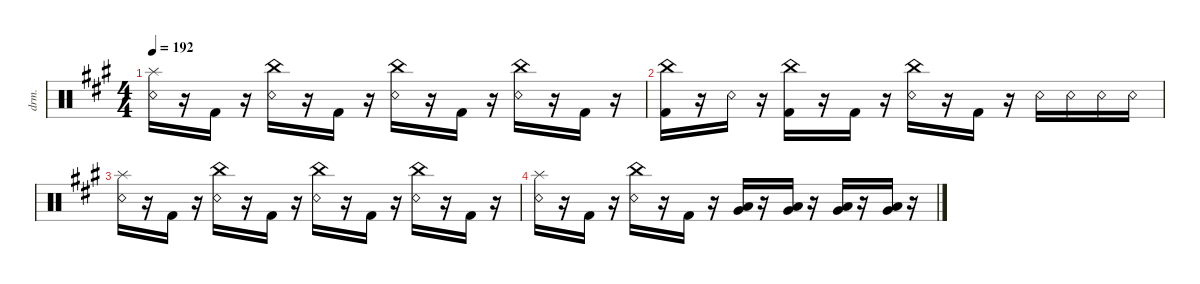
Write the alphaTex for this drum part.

\defaultSystemsLayout 4
\hideDynamics
\bracketExtendMode nobrackets
\otherSystemsTrackNameOrientation horizontal
\track ("Drumkit" "drm.") {instrument percussion}
\staff {score}
\articulation defaults
\ts (4 4)
\tempo 192
\clef neutral
\ks a
("Snare (rim shot)"{acc forcenatural} "Splash (hit)"{acc forcenatural}).16{dy ff beam Down} r.16{beam Down} "Kick (hit) 2"{acc forcenatural}.16{beam Down} r.16{beam Down} ("Snare (rim shot)"{acc forcenatural} "China (hit)"{acc forcenatural}).16{beam Down} r.16{beam Down} "Kick (hit) 2"{acc forcenatural}.16{beam Down} r.16{beam Down} ("Snare (rim shot)"{acc forcenatural} "China (hit)"{acc forcenatural}).16{beam Down} r.16{beam Down} "Kick (hit) 2"{acc forcenatural}.16{beam Down} r.16{beam Down} ("Snare (rim shot)"{acc forcenatural} "China (hit)"{acc forcenatural}).16{beam Down} r.16{beam Down} "Kick (hit) 2"{acc forcenatural}.16{beam Down} r.16{beam Down} |
("Kick (hit) 2"{acc forcenatural} "China (hit)"{acc forcenatural}).16{beam Down} r.16{beam Down} "Snare (rim shot)"{acc forcenatural}.16{beam Down} r.16{beam Down} ("Kick (hit) 2"{acc forcenatural} "China (hit)"{acc forcenatural}).16{beam Down} r.16{beam Down} "Kick (hit) 2"{acc forcenatural}.16{beam Down} r.16{beam Down} ("Snare (rim shot)"{acc forcenatural} "China (hit)"{acc forcenatural}).16{beam Down} r.16{beam Down} "Kick (hit) 2"{acc forcenatural}.16{beam Down} r.16{beam Down} "Snare (rim shot)"{acc forcenatural}.16{beam Down} "Snare (rim shot)"{acc forcenatural}.16{beam Down} "Snare (rim shot)"{acc forcenatural}.16{beam Down} "Snare (rim shot)"{acc forcenatural}.16{beam Down} |
("Snare (rim shot)"{acc forcenatural} "Splash (hit)"{acc forcenatural}).16{beam Down} r.16{beam Down} "Kick (hit) 2"{acc forcenatural}.16{beam Down} r.16{beam Down} ("Snare (rim shot)"{acc forcenatural} "China (hit)"{acc forcenatural}).16{beam Down} r.16{beam Down} "Kick (hit) 2"{acc forcenatural}.16{beam Down} r.16{beam Down} ("Snare (rim shot)"{acc forcenatural} "China (hit)"{acc forcenatural}).16{beam Down} r.16{beam Down} "Kick (hit) 2"{acc forcenatural}.16{beam Down} r.16{beam Down} ("Snare (rim shot)"{acc forcenatural} "China (hit)"{acc forcenatural}).16{beam Down} r.16{beam Down} "Kick (hit) 2"{acc forcenatural}.16{beam Down} r.16{beam Down} |
("Snare (rim shot)"{acc forcenatural} "Splash (hit)"{acc forcenatural}).16{beam Down} r.16{beam Down} "Kick (hit) 2"{acc forcenatural}.16{beam Down} r.16{beam Down} ("Snare (rim shot)"{acc forcenatural} "China (hit)"{acc forcenatural}).16{beam Down} r.16{beam Down} "Kick (hit) 2"{acc forcenatural}.16{beam Down} r.16{beam Down} ("Very Low Tom (hit)"{acc forcenatural} "Low Tom (hit)"{acc forcenatural}).16{beam Up} r.16{beam Up} ("Low Tom (hit)"{acc forcenatural} "Very Low Tom (hit)"{acc forcenatural}).16{beam Up} r.16{beam Up} ("Very Low Tom (hit)"{acc forcenatural} "Low Tom (hit)"{acc forcenatural}).16{beam Up} r.16{beam Up} ("Very Low Tom (hit)"{acc forcenatural} "Low Tom (hit)"{acc forcenatural}).16{beam Up} r.16{beam Up}
